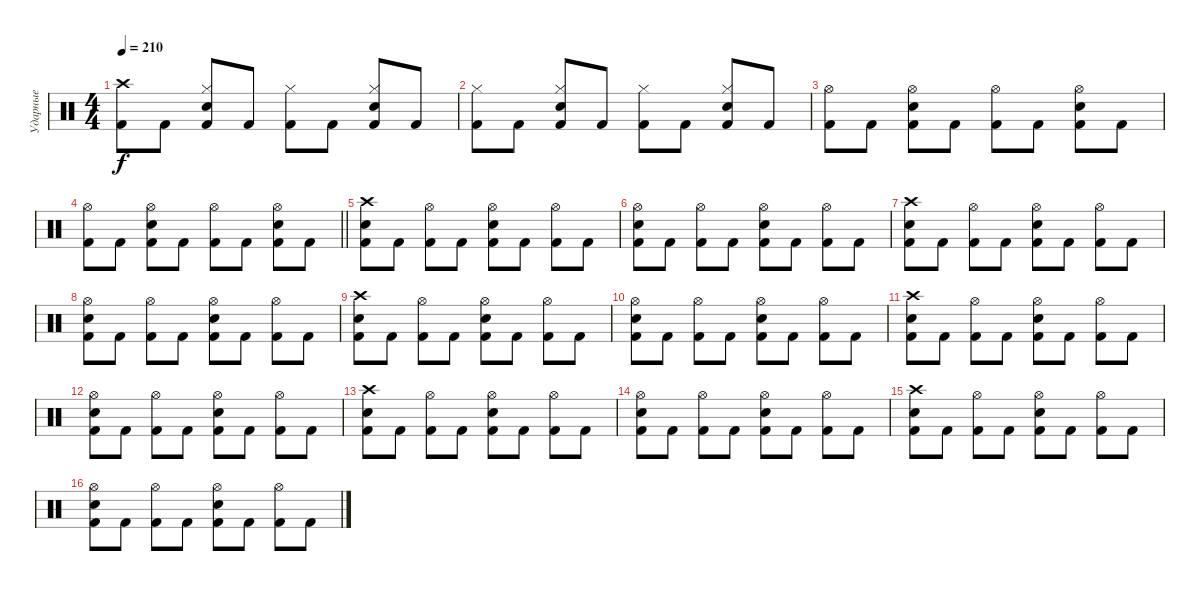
\track ("Ударные" "Ударные") {instrument percussion}
\staff {score}
\articulation defaults
\ts (4 4)
\tempo 210
\clef neutral
\ks c
("Crash high (hit)" "Kick (hit) 2").8{dy f} "Kick (hit) 2".8 ("Hi-Hat (closed)" "Electric Snare (hit)" "Kick (hit) 2").8 "Kick (hit) 2".8 ("Hi-Hat (closed)" "Kick (hit) 2").8 "Kick (hit) 2".8 ("Hi-Hat (closed)" "Electric Snare (hit)" "Kick (hit) 2").8 "Kick (hit) 2".8 |
("Hi-Hat (closed)" "Kick (hit) 2").8 "Kick (hit) 2".8 ("Hi-Hat (closed)" "Electric Snare (hit)" "Kick (hit) 2").8 "Kick (hit) 2".8 ("Hi-Hat (closed)" "Kick (hit) 2").8 "Kick (hit) 2".8 ("Hi-Hat (closed)" "Electric Snare (hit)" "Kick (hit) 2").8 "Kick (hit) 2".8 |
("Hi-Hat (open)" "Kick (hit) 2").8 "Kick (hit) 2".8 ("Hi-Hat (open)" "Electric Snare (hit)" "Kick (hit) 2").8 "Kick (hit) 2".8 ("Hi-Hat (open)" "Kick (hit) 2").8 "Kick (hit) 2".8 ("Hi-Hat (open)" "Electric Snare (hit)" "Kick (hit) 2").8 "Kick (hit) 2".8 |
\barLineRight lightlight
("Hi-Hat (open)" "Kick (hit) 2").8 "Kick (hit) 2".8 ("Hi-Hat (open)" "Electric Snare (hit)" "Kick (hit) 2").8 "Kick (hit) 2".8 ("Hi-Hat (open)" "Kick (hit) 2").8 "Kick (hit) 2".8 ("Hi-Hat (open)" "Electric Snare (hit)" "Kick (hit) 2").8 "Kick (hit) 2".8 |
("Crash high (hit)" "Electric Snare (hit)" "Kick (hit) 2").8 "Kick (hit) 2".8 ("Kick (hit) 2" "Hi-Hat (open)").8 "Kick (hit) 2".8 ("Kick (hit) 2" "Hi-Hat (open)" "Electric Snare (hit)").8 "Kick (hit) 2".8 ("Kick (hit) 2" "Hi-Hat (open)").8 "Kick (hit) 2".8 |
("Hi-Hat (open)" "Electric Snare (hit)" "Kick (hit) 2").8 "Kick (hit) 2".8 ("Kick (hit) 2" "Hi-Hat (open)").8 "Kick (hit) 2".8 ("Kick (hit) 2" "Hi-Hat (open)" "Electric Snare (hit)").8 "Kick (hit) 2".8 ("Kick (hit) 2" "Hi-Hat (open)").8 "Kick (hit) 2".8 |
("Crash high (hit)" "Electric Snare (hit)" "Kick (hit) 2").8 "Kick (hit) 2".8 ("Kick (hit) 2" "Hi-Hat (open)").8 "Kick (hit) 2".8 ("Kick (hit) 2" "Hi-Hat (open)" "Electric Snare (hit)").8 "Kick (hit) 2".8 ("Kick (hit) 2" "Hi-Hat (open)").8 "Kick (hit) 2".8 |
("Hi-Hat (open)" "Electric Snare (hit)" "Kick (hit) 2").8 "Kick (hit) 2".8 ("Kick (hit) 2" "Hi-Hat (open)").8 "Kick (hit) 2".8 ("Kick (hit) 2" "Hi-Hat (open)" "Electric Snare (hit)").8 "Kick (hit) 2".8 ("Kick (hit) 2" "Hi-Hat (open)").8 "Kick (hit) 2".8 |
("Crash high (hit)" "Electric Snare (hit)" "Kick (hit) 2").8 "Kick (hit) 2".8 ("Kick (hit) 2" "Hi-Hat (open)").8 "Kick (hit) 2".8 ("Kick (hit) 2" "Hi-Hat (open)" "Electric Snare (hit)").8 "Kick (hit) 2".8 ("Kick (hit) 2" "Hi-Hat (open)").8 "Kick (hit) 2".8 |
("Hi-Hat (open)" "Electric Snare (hit)" "Kick (hit) 2").8 "Kick (hit) 2".8 ("Kick (hit) 2" "Hi-Hat (open)").8 "Kick (hit) 2".8 ("Kick (hit) 2" "Hi-Hat (open)" "Electric Snare (hit)").8 "Kick (hit) 2".8 ("Kick (hit) 2" "Hi-Hat (open)").8 "Kick (hit) 2".8 |
("Crash high (hit)" "Electric Snare (hit)" "Kick (hit) 2").8 "Kick (hit) 2".8 ("Kick (hit) 2" "Hi-Hat (open)").8 "Kick (hit) 2".8 ("Kick (hit) 2" "Hi-Hat (open)" "Electric Snare (hit)").8 "Kick (hit) 2".8 ("Kick (hit) 2" "Hi-Hat (open)").8 "Kick (hit) 2".8 |
("Hi-Hat (open)" "Electric Snare (hit)" "Kick (hit) 2").8 "Kick (hit) 2".8 ("Kick (hit) 2" "Hi-Hat (open)").8 "Kick (hit) 2".8 ("Kick (hit) 2" "Hi-Hat (open)" "Electric Snare (hit)").8 "Kick (hit) 2".8 ("Kick (hit) 2" "Hi-Hat (open)").8 "Kick (hit) 2".8 |
("Crash high (hit)" "Electric Snare (hit)" "Kick (hit) 2").8 "Kick (hit) 2".8 ("Kick (hit) 2" "Hi-Hat (open)").8 "Kick (hit) 2".8 ("Kick (hit) 2" "Hi-Hat (open)" "Electric Snare (hit)").8 "Kick (hit) 2".8 ("Kick (hit) 2" "Hi-Hat (open)").8 "Kick (hit) 2".8 |
("Hi-Hat (open)" "Electric Snare (hit)" "Kick (hit) 2").8 "Kick (hit) 2".8 ("Kick (hit) 2" "Hi-Hat (open)").8 "Kick (hit) 2".8 ("Kick (hit) 2" "Hi-Hat (open)" "Electric Snare (hit)").8 "Kick (hit) 2".8 ("Kick (hit) 2" "Hi-Hat (open)").8 "Kick (hit) 2".8 |
("Crash high (hit)" "Electric Snare (hit)" "Kick (hit) 2").8 "Kick (hit) 2".8 ("Kick (hit) 2" "Hi-Hat (open)").8 "Kick (hit) 2".8 ("Kick (hit) 2" "Hi-Hat (open)" "Electric Snare (hit)").8 "Kick (hit) 2".8 ("Kick (hit) 2" "Hi-Hat (open)").8 "Kick (hit) 2".8 |
("Hi-Hat (open)" "Electric Snare (hit)" "Kick (hit) 2").8 "Kick (hit) 2".8 ("Kick (hit) 2" "Hi-Hat (open)").8 "Kick (hit) 2".8 ("Kick (hit) 2" "Hi-Hat (open)" "Electric Snare (hit)").8 "Kick (hit) 2".8 ("Kick (hit) 2" "Hi-Hat (open)").8 "Kick (hit) 2".8
